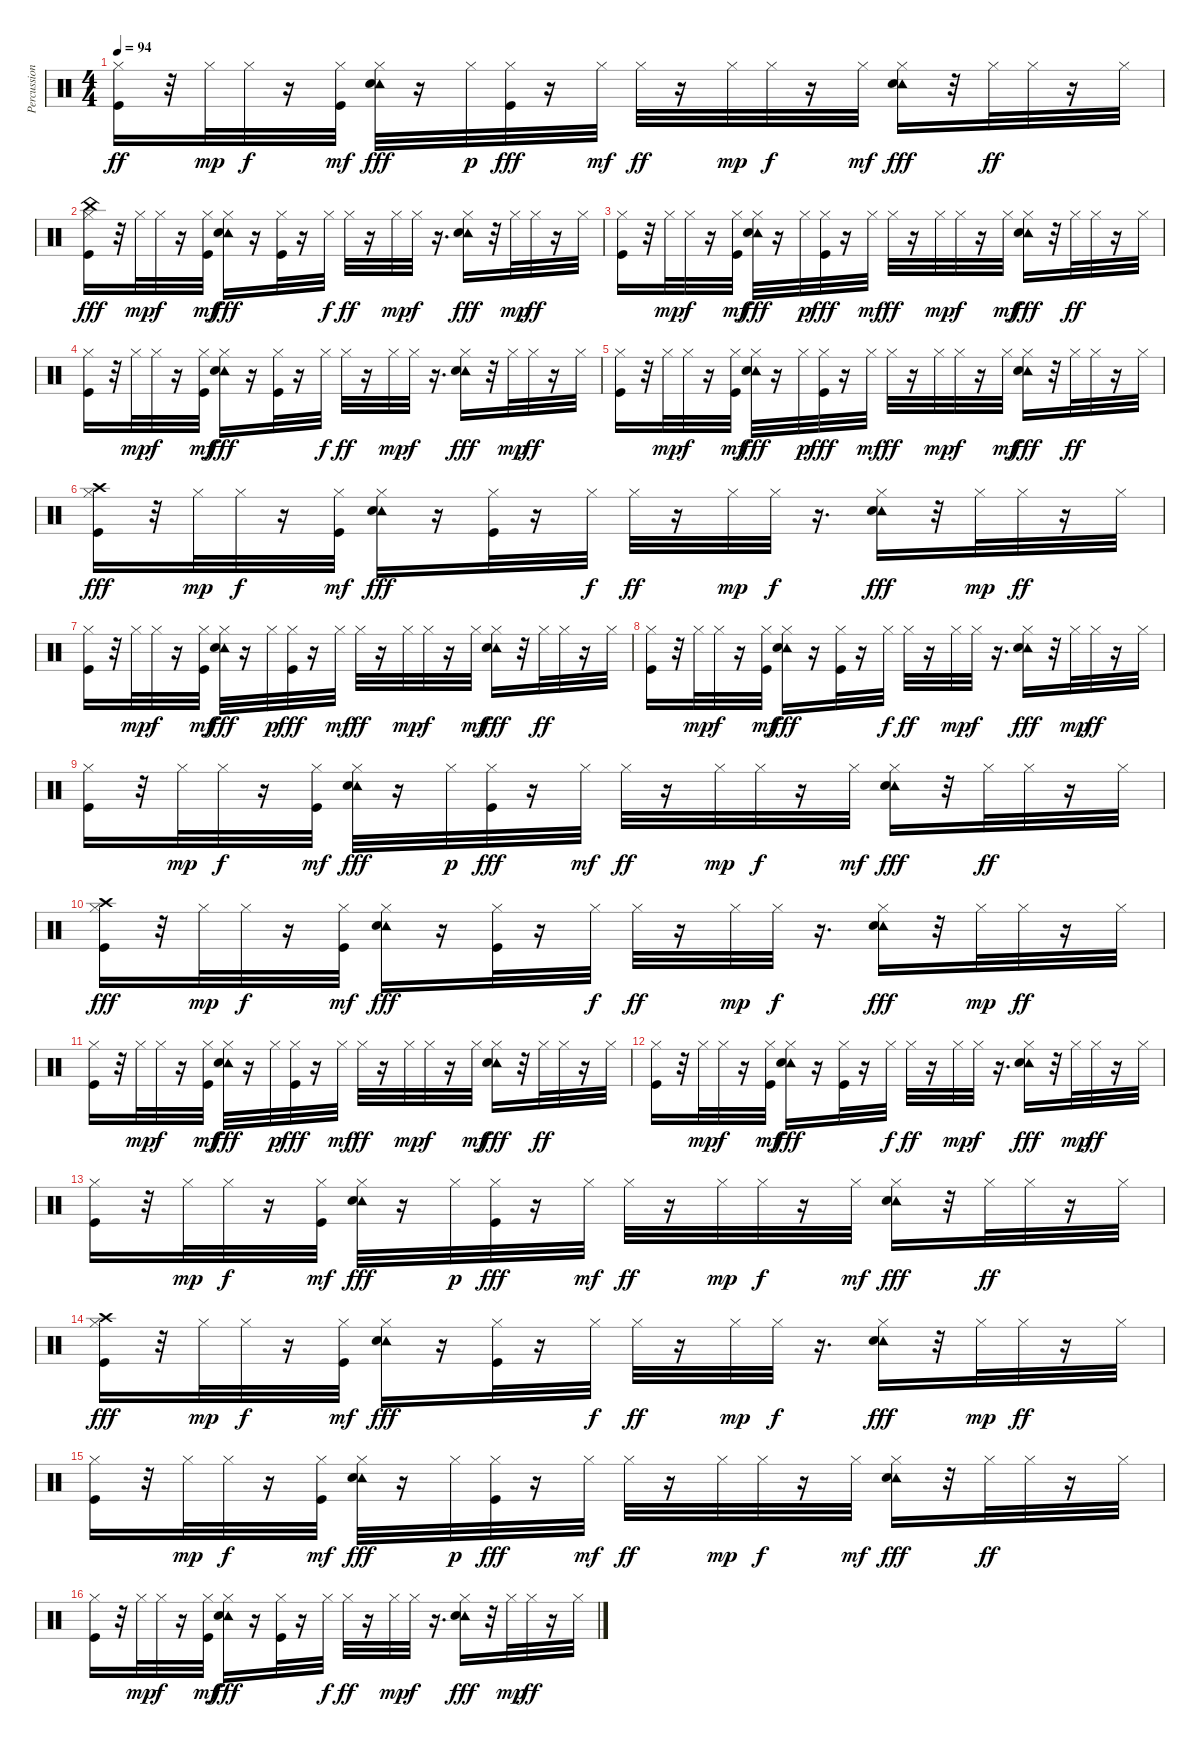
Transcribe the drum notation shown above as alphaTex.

\track ("Percussion" "Percussion") {instrument percussion}
\staff {score}
\articulation defaults
\ts (4 4)
\tempo 94
\clef neutral
\ks c
("Kick (hit)" "Hi-Hat (closed)").16{dy ff} r.32 "Hi-Hat (closed)".32{dy mp} "Hi-Hat (closed)".32{dy f} r.16 ("Kick (hit)" "Hi-Hat (closed)").32{dy mf} ("Hi-Hat (closed)" "Tambourine (hit)" "Snare (hit) 2").32{dy fff} r.16 "Hi-Hat (closed)".32{dy p} ("Kick (hit)" "Hi-Hat (closed)").32{dy fff} r.16 "Hi-Hat (closed)".32{dy mf} "Hi-Hat (closed)".32{dy ff} r.16 "Hi-Hat (closed)".32{dy mp} "Hi-Hat (closed)".32{dy f} r.16 "Hi-Hat (closed)".32{dy mf} ("Hi-Hat (closed)" "Tambourine (hit)" "Snare (hit) 2").16{dy fff} r.32 "Hi-Hat (closed)".32{dy ff} "Hi-Hat (closed)".32 r.16 "Hi-Hat (closed)".32 |
("Kick (hit)" "Hi-Hat (closed)" "China (hit)").16{dy fff} r.32 "Hi-Hat (closed)".32{dy mp} "Hi-Hat (closed)".32{dy f} r.16 ("Kick (hit)" "Hi-Hat (closed)").32{dy mf} ("Hi-Hat (closed)" "Tambourine (hit)" "Snare (hit) 2").16{dy fff} r.16 ("Kick (hit)" "Hi-Hat (closed)").32 r.16 "Hi-Hat (closed)".32{dy f} "Hi-Hat (closed)".32{dy ff} r.16 "Hi-Hat (closed)".32{dy mp} "Hi-Hat (closed)".32{dy f} r.16{d} ("Hi-Hat (closed)" "Tambourine (hit)" "Snare (hit) 2").16{dy fff} r.32 "Hi-Hat (closed)".32{dy mp} "Hi-Hat (closed)".32{dy ff} r.16 "Hi-Hat (closed)".32 |
("Kick (hit)" "Hi-Hat (closed)").16 r.32 "Hi-Hat (closed)".32{dy mp} "Hi-Hat (closed)".32{dy f} r.16 ("Kick (hit)" "Hi-Hat (closed)").32{dy mf} ("Hi-Hat (closed)" "Tambourine (hit)" "Snare (hit) 2").32{dy fff} r.16 "Hi-Hat (closed)".32{dy p} ("Kick (hit)" "Hi-Hat (closed)").32{dy fff} r.16 "Hi-Hat (closed)".32{dy mf} "Hi-Hat (closed)".32{dy ff} r.16 "Hi-Hat (closed)".32{dy mp} "Hi-Hat (closed)".32{dy f} r.16 "Hi-Hat (closed)".32{dy mf} ("Hi-Hat (closed)" "Tambourine (hit)" "Snare (hit) 2").16{dy fff} r.32 "Hi-Hat (closed)".32{dy ff} "Hi-Hat (closed)".32 r.16 "Hi-Hat (closed)".32 |
("Kick (hit)" "Hi-Hat (closed)").16 r.32 "Hi-Hat (closed)".32{dy mp} "Hi-Hat (closed)".32{dy f} r.16 ("Kick (hit)" "Hi-Hat (closed)").32{dy mf} ("Hi-Hat (closed)" "Tambourine (hit)" "Snare (hit) 2").16{dy fff} r.16 ("Kick (hit)" "Hi-Hat (closed)").32 r.16 "Hi-Hat (closed)".32{dy f} "Hi-Hat (closed)".32{dy ff} r.16 "Hi-Hat (closed)".32{dy mp} "Hi-Hat (closed)".32{dy f} r.16{d} ("Hi-Hat (closed)" "Tambourine (hit)" "Snare (hit) 2").16{dy fff} r.32 "Hi-Hat (closed)".32{dy mp} "Hi-Hat (closed)".32{dy ff} r.16 "Hi-Hat (closed)".32 |
("Kick (hit)" "Hi-Hat (closed)").16 r.32 "Hi-Hat (closed)".32{dy mp} "Hi-Hat (closed)".32{dy f} r.16 ("Kick (hit)" "Hi-Hat (closed)").32{dy mf} ("Hi-Hat (closed)" "Tambourine (hit)" "Snare (hit) 2").32{dy fff} r.16 "Hi-Hat (closed)".32{dy p} ("Kick (hit)" "Hi-Hat (closed)").32{dy fff} r.16 "Hi-Hat (closed)".32{dy mf} "Hi-Hat (closed)".32{dy ff} r.16 "Hi-Hat (closed)".32{dy mp} "Hi-Hat (closed)".32{dy f} r.16 "Hi-Hat (closed)".32{dy mf} ("Hi-Hat (closed)" "Tambourine (hit)" "Snare (hit) 2").16{dy fff} r.32 "Hi-Hat (closed)".32{dy ff} "Hi-Hat (closed)".32 r.16 "Hi-Hat (closed)".32 |
("Kick (hit)" "Hi-Hat (closed)" "Crash high (hit)").16{dy fff} r.32 "Hi-Hat (closed)".32{dy mp} "Hi-Hat (closed)".32{dy f} r.16 ("Kick (hit)" "Hi-Hat (closed)").32{dy mf} ("Hi-Hat (closed)" "Tambourine (hit)" "Snare (hit) 2").16{dy fff} r.16 ("Kick (hit)" "Hi-Hat (closed)").32 r.16 "Hi-Hat (closed)".32{dy f} "Hi-Hat (closed)".32{dy ff} r.16 "Hi-Hat (closed)".32{dy mp} "Hi-Hat (closed)".32{dy f} r.16{d} ("Hi-Hat (closed)" "Tambourine (hit)" "Snare (hit) 2").16{dy fff} r.32 "Hi-Hat (closed)".32{dy mp} "Hi-Hat (closed)".32{dy ff} r.16 "Hi-Hat (closed)".32 |
("Kick (hit)" "Hi-Hat (closed)").16 r.32 "Hi-Hat (closed)".32{dy mp} "Hi-Hat (closed)".32{dy f} r.16 ("Kick (hit)" "Hi-Hat (closed)").32{dy mf} ("Hi-Hat (closed)" "Tambourine (hit)" "Snare (hit) 2").32{dy fff} r.16 "Hi-Hat (closed)".32{dy p} ("Kick (hit)" "Hi-Hat (closed)").32{dy fff} r.16 "Hi-Hat (closed)".32{dy mf} "Hi-Hat (closed)".32{dy ff} r.16 "Hi-Hat (closed)".32{dy mp} "Hi-Hat (closed)".32{dy f} r.16 "Hi-Hat (closed)".32{dy mf} ("Hi-Hat (closed)" "Tambourine (hit)" "Snare (hit) 2").16{dy fff} r.32 "Hi-Hat (closed)".32{dy ff} "Hi-Hat (closed)".32 r.16 "Hi-Hat (closed)".32 |
("Kick (hit)" "Hi-Hat (closed)").16 r.32 "Hi-Hat (closed)".32{dy mp} "Hi-Hat (closed)".32{dy f} r.16 ("Kick (hit)" "Hi-Hat (closed)").32{dy mf} ("Hi-Hat (closed)" "Tambourine (hit)" "Snare (hit) 2").16{dy fff} r.16 ("Kick (hit)" "Hi-Hat (closed)").32 r.16 "Hi-Hat (closed)".32{dy f} "Hi-Hat (closed)".32{dy ff} r.16 "Hi-Hat (closed)".32{dy mp} "Hi-Hat (closed)".32{dy f} r.16{d} ("Hi-Hat (closed)" "Tambourine (hit)" "Snare (hit) 2").16{dy fff} r.32 "Hi-Hat (closed)".32{dy mp} "Hi-Hat (closed)".32{dy ff} r.16 "Hi-Hat (closed)".32 |
("Kick (hit)" "Hi-Hat (closed)").16 r.32 "Hi-Hat (closed)".32{dy mp} "Hi-Hat (closed)".32{dy f} r.16 ("Kick (hit)" "Hi-Hat (closed)").32{dy mf} ("Hi-Hat (closed)" "Tambourine (hit)" "Snare (hit) 2").32{dy fff} r.16 "Hi-Hat (closed)".32{dy p} ("Kick (hit)" "Hi-Hat (closed)").32{dy fff} r.16 "Hi-Hat (closed)".32{dy mf} "Hi-Hat (closed)".32{dy ff} r.16 "Hi-Hat (closed)".32{dy mp} "Hi-Hat (closed)".32{dy f} r.16 "Hi-Hat (closed)".32{dy mf} ("Hi-Hat (closed)" "Tambourine (hit)" "Snare (hit) 2").16{dy fff} r.32 "Hi-Hat (closed)".32{dy ff} "Hi-Hat (closed)".32 r.16 "Hi-Hat (closed)".32 |
("Kick (hit)" "Hi-Hat (closed)" "Crash high (hit)").16{dy fff} r.32 "Hi-Hat (closed)".32{dy mp} "Hi-Hat (closed)".32{dy f} r.16 ("Kick (hit)" "Hi-Hat (closed)").32{dy mf} ("Hi-Hat (closed)" "Tambourine (hit)" "Snare (hit) 2").16{dy fff} r.16 ("Kick (hit)" "Hi-Hat (closed)").32 r.16 "Hi-Hat (closed)".32{dy f} "Hi-Hat (closed)".32{dy ff} r.16 "Hi-Hat (closed)".32{dy mp} "Hi-Hat (closed)".32{dy f} r.16{d} ("Hi-Hat (closed)" "Tambourine (hit)" "Snare (hit) 2").16{dy fff} r.32 "Hi-Hat (closed)".32{dy mp} "Hi-Hat (closed)".32{dy ff} r.16 "Hi-Hat (closed)".32 |
("Kick (hit)" "Hi-Hat (closed)").16 r.32 "Hi-Hat (closed)".32{dy mp} "Hi-Hat (closed)".32{dy f} r.16 ("Kick (hit)" "Hi-Hat (closed)").32{dy mf} ("Hi-Hat (closed)" "Tambourine (hit)" "Snare (hit) 2").32{dy fff} r.16 "Hi-Hat (closed)".32{dy p} ("Kick (hit)" "Hi-Hat (closed)").32{dy fff} r.16 "Hi-Hat (closed)".32{dy mf} "Hi-Hat (closed)".32{dy ff} r.16 "Hi-Hat (closed)".32{dy mp} "Hi-Hat (closed)".32{dy f} r.16 "Hi-Hat (closed)".32{dy mf} ("Hi-Hat (closed)" "Tambourine (hit)" "Snare (hit) 2").16{dy fff} r.32 "Hi-Hat (closed)".32{dy ff} "Hi-Hat (closed)".32 r.16 "Hi-Hat (closed)".32 |
("Kick (hit)" "Hi-Hat (closed)").16 r.32 "Hi-Hat (closed)".32{dy mp} "Hi-Hat (closed)".32{dy f} r.16 ("Kick (hit)" "Hi-Hat (closed)").32{dy mf} ("Hi-Hat (closed)" "Tambourine (hit)" "Snare (hit) 2").16{dy fff} r.16 ("Kick (hit)" "Hi-Hat (closed)").32 r.16 "Hi-Hat (closed)".32{dy f} "Hi-Hat (closed)".32{dy ff} r.16 "Hi-Hat (closed)".32{dy mp} "Hi-Hat (closed)".32{dy f} r.16{d} ("Hi-Hat (closed)" "Tambourine (hit)" "Snare (hit) 2").16{dy fff} r.32 "Hi-Hat (closed)".32{dy mp} "Hi-Hat (closed)".32{dy ff} r.16 "Hi-Hat (closed)".32 |
("Kick (hit)" "Hi-Hat (closed)").16 r.32 "Hi-Hat (closed)".32{dy mp} "Hi-Hat (closed)".32{dy f} r.16 ("Kick (hit)" "Hi-Hat (closed)").32{dy mf} ("Hi-Hat (closed)" "Tambourine (hit)" "Snare (hit) 2").32{dy fff} r.16 "Hi-Hat (closed)".32{dy p} ("Kick (hit)" "Hi-Hat (closed)").32{dy fff} r.16 "Hi-Hat (closed)".32{dy mf} "Hi-Hat (closed)".32{dy ff} r.16 "Hi-Hat (closed)".32{dy mp} "Hi-Hat (closed)".32{dy f} r.16 "Hi-Hat (closed)".32{dy mf} ("Hi-Hat (closed)" "Tambourine (hit)" "Snare (hit) 2").16{dy fff} r.32 "Hi-Hat (closed)".32{dy ff} "Hi-Hat (closed)".32 r.16 "Hi-Hat (closed)".32 |
("Kick (hit)" "Hi-Hat (closed)" "Crash high (hit)").16{dy fff} r.32 "Hi-Hat (closed)".32{dy mp} "Hi-Hat (closed)".32{dy f} r.16 ("Kick (hit)" "Hi-Hat (closed)").32{dy mf} ("Hi-Hat (closed)" "Tambourine (hit)" "Snare (hit) 2").16{dy fff} r.16 ("Kick (hit)" "Hi-Hat (closed)").32 r.16 "Hi-Hat (closed)".32{dy f} "Hi-Hat (closed)".32{dy ff} r.16 "Hi-Hat (closed)".32{dy mp} "Hi-Hat (closed)".32{dy f} r.16{d} ("Hi-Hat (closed)" "Tambourine (hit)" "Snare (hit) 2").16{dy fff} r.32 "Hi-Hat (closed)".32{dy mp} "Hi-Hat (closed)".32{dy ff} r.16 "Hi-Hat (closed)".32 |
("Kick (hit)" "Hi-Hat (closed)").16 r.32 "Hi-Hat (closed)".32{dy mp} "Hi-Hat (closed)".32{dy f} r.16 ("Kick (hit)" "Hi-Hat (closed)").32{dy mf} ("Hi-Hat (closed)" "Tambourine (hit)" "Snare (hit) 2").32{dy fff} r.16 "Hi-Hat (closed)".32{dy p} ("Kick (hit)" "Hi-Hat (closed)").32{dy fff} r.16 "Hi-Hat (closed)".32{dy mf} "Hi-Hat (closed)".32{dy ff} r.16 "Hi-Hat (closed)".32{dy mp} "Hi-Hat (closed)".32{dy f} r.16 "Hi-Hat (closed)".32{dy mf} ("Hi-Hat (closed)" "Tambourine (hit)" "Snare (hit) 2").16{dy fff} r.32 "Hi-Hat (closed)".32{dy ff} "Hi-Hat (closed)".32 r.16 "Hi-Hat (closed)".32 |
("Kick (hit)" "Hi-Hat (closed)").16 r.32 "Hi-Hat (closed)".32{dy mp} "Hi-Hat (closed)".32{dy f} r.16 ("Kick (hit)" "Hi-Hat (closed)").32{dy mf} ("Hi-Hat (closed)" "Tambourine (hit)" "Snare (hit) 2").16{dy fff} r.16 ("Kick (hit)" "Hi-Hat (closed)").32 r.16 "Hi-Hat (closed)".32{dy f} "Hi-Hat (closed)".32{dy ff} r.16 "Hi-Hat (closed)".32{dy mp} "Hi-Hat (closed)".32{dy f} r.16{d} ("Hi-Hat (closed)" "Tambourine (hit)" "Snare (hit) 2").16{dy fff} r.32 "Hi-Hat (closed)".32{dy mp} "Hi-Hat (closed)".32{dy ff} r.16 "Hi-Hat (closed)".32
